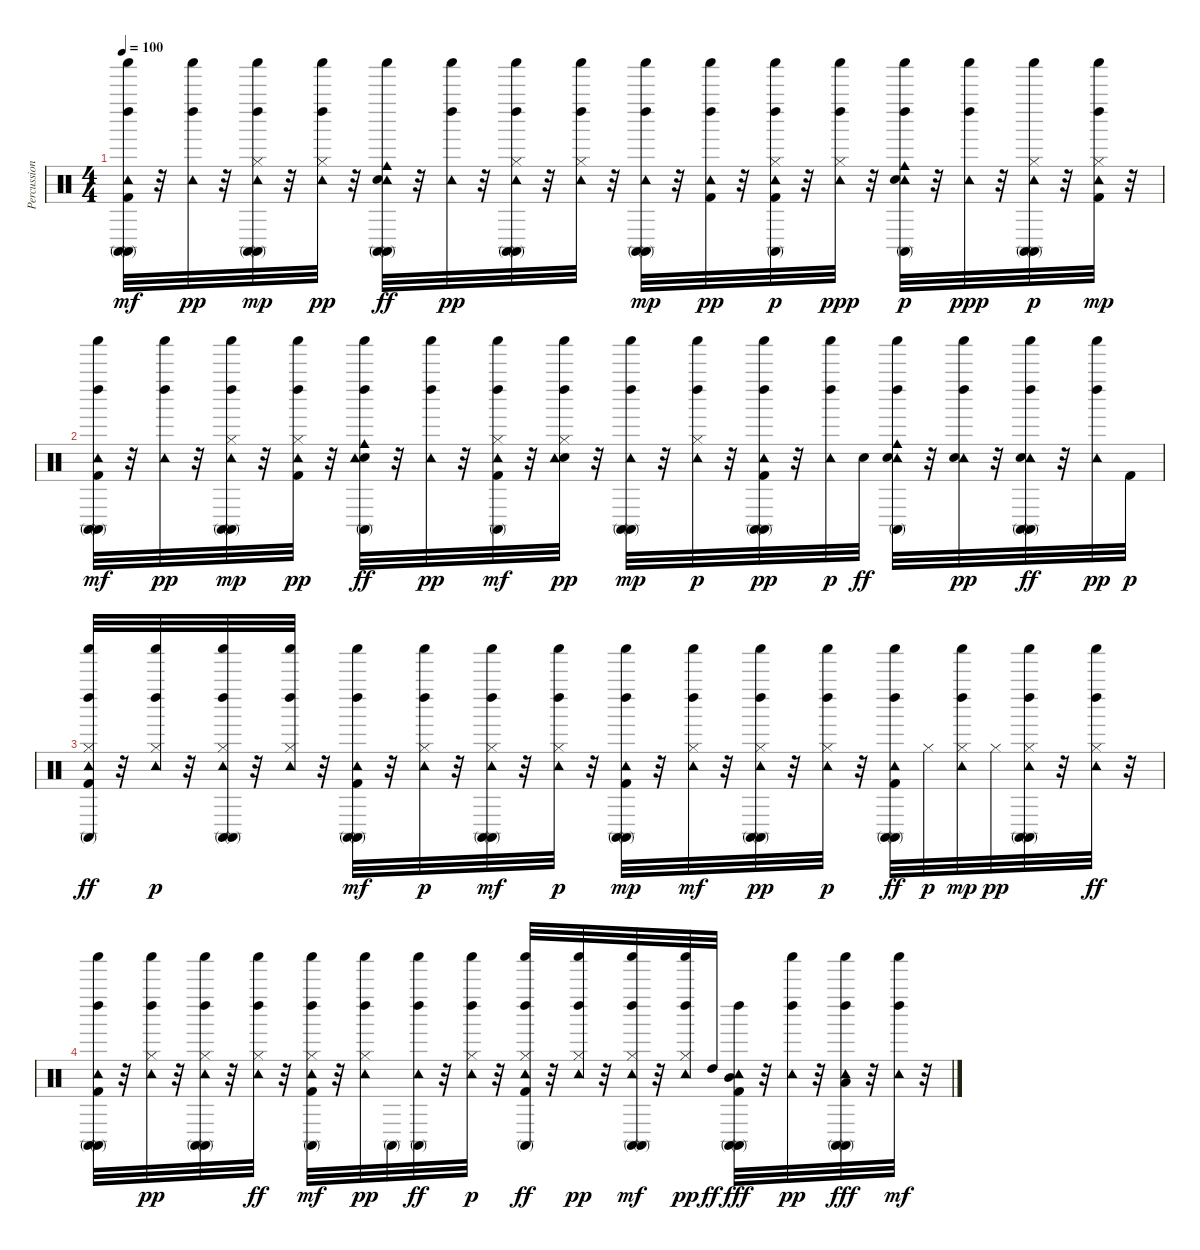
\track ("Percussions" "Percussion") {instrument percussion}
\staff {score}
\articulation defaults
\ts (4 4)
\tempo 100
\clef neutral
\ks c
("Conga high (mute)" "Tambourine (hit)" "Kick (hit) 2" "Conga high (mute)" "Left Maraca (hit)" "Shaker (hit)").32{dy mf} r.32 ("Tambourine (hit)" "Left Maraca (hit)" "Shaker (hit)").32{dy pp} r.32 ("Conga high (mute)" "Hi-Hat (closed)" "Tambourine (hit)" "Conga high (mute)" "Left Maraca (hit)" "Shaker (hit)").32{dy mp} r.32 ("Hi-Hat (closed)" "Tambourine (hit)" "Left Maraca (hit)" "Shaker (hit)").32{dy pp} r.32 ("Conga high (mute)" "Tambourine (hit)" "Conga high (mute)" "Cowbell medium (hit)" "Shaker (hit)" "Electric Snare (hit)").32{dy ff} r.32 ("Tambourine (hit)" "Left Maraca (hit)" "Shaker (hit)").32{dy pp} r.32 ("Conga high (mute)" "Tambourine (hit)" "Hi-Hat (closed)" "Shaker (hit)" "Conga high (mute)" "Left Maraca (hit)").32 r.32 ("Tambourine (hit)" "Hi-Hat (closed)" "Left Maraca (hit)" "Shaker (hit)").32 r.32 ("Conga high (mute)" "Conga high (mute)" "Tambourine (hit)" "Left Maraca (hit)" "Shaker (hit)").32{dy mp} r.32 ("Kick (hit) 2" "Tambourine (hit)" "Left Maraca (hit)" "Shaker (hit)").32{dy pp} r.32 ("Kick (hit) 2" "Hi-Hat (closed)" "Tambourine (hit)" "Left Maraca (hit)" "Shaker (hit)" "Conga high (mute)").32{dy p} r.32 ("Hi-Hat (closed)" "Left Maraca (hit)" "Tambourine (hit)" "Shaker (hit)").32{dy ppp} r.32 ("Tambourine (hit)" "Left Maraca (hit)" "Cowbell medium (hit)" "Electric Snare (hit)" "Shaker (hit)" "Conga high (mute)").32{dy p} r.32 ("Tambourine (hit)" "Left Maraca (hit)" "Shaker (hit)").32{dy ppp} r.32 ("Tambourine (hit)" "Conga high (mute)" "Hi-Hat (closed)" "Shaker (hit)" "Conga high (mute)").32{dy p} r.32 ("Left Maraca (hit)" "Hi-Hat (closed)" "Tambourine (hit)" "Shaker (hit)" "Kick (hit) 2").32{dy mp} r.32 |
("Conga high (mute)" "Left Maraca (hit)" "Conga high (mute)" "Shaker (hit)" "Tambourine (hit)" "Kick (hit) 2").32{dy mf} r.32 ("Left Maraca (hit)" "Shaker (hit)" "Tambourine (hit)").32{dy pp} r.32 ("Conga high (mute)" "Left Maraca (hit)" "Conga high (mute)" "Hi-Hat (closed)" "Shaker (hit)" "Tambourine (hit)").32{dy mp} r.32 ("Kick (hit) 2" "Hi-Hat (closed)" "Left Maraca (hit)" "Shaker (hit)" "Tambourine (hit)").32{dy pp} r.32 ("Electric Snare (hit)" "Left Maraca (hit)" "Shaker (hit)" "Conga high (mute)" "Tambourine (hit)" "Cowbell medium (hit)").32{dy ff} r.32 ("Left Maraca (hit)" "Shaker (hit)" "Tambourine (hit)").32{dy pp} r.32 ("Left Maraca (hit)" "Conga high (mute)" "Shaker (hit)" "Kick (hit) 2" "Tambourine (hit)" "Hi-Hat (closed)").32{dy mf} r.32 ("Electric Snare (hit)" "Left Maraca (hit)" "Hi-Hat (closed)" "Tambourine (hit)" "Shaker (hit)").32{dy pp} r.32 ("Left Maraca (hit)" "Shaker (hit)" "Tambourine (hit)" "Conga high (mute)" "Conga high (mute)").32{dy mp} r.32 ("Left Maraca (hit)" "Hi-Hat (closed)" "Tambourine (hit)" "Shaker (hit)").32{dy p} r.32 ("Kick (hit) 2" "Left Maraca (hit)" "Tambourine (hit)" "Shaker (hit)" "Conga high (mute)" "Conga high (mute)").32{dy pp} r.32 ("Tambourine (hit)" "Left Maraca (hit)" "Shaker (hit)").32{dy p} "Electric Snare (hit)".32{dy ff} ("Conga high (mute)" "Tambourine (hit)" "Left Maraca (hit)" "Electric Snare (hit)" "Cowbell medium (hit)" "Shaker (hit)").32 r.32 ("Tambourine (hit)" "Left Maraca (hit)" "Shaker (hit)" "Electric Snare (hit)").32{dy pp} r.32 ("Conga high (mute)" "Tambourine (hit)" "Left Maraca (hit)" "Conga high (mute)" "Shaker (hit)" "Electric Snare (hit)").32{dy ff} r.32 ("Tambourine (hit)" "Left Maraca (hit)" "Shaker (hit)").32{dy pp} "Kick (hit) 2".32{dy p} |
("Tambourine (hit)" "Conga high (mute)" "Left Maraca (hit)" "Hi-Hat (closed)" "Kick (hit) 2" "Shaker (hit)").32{dy ff} r.32 ("Tambourine (hit)" "Left Maraca (hit)" "Shaker (hit)" "Hi-Hat (closed)").32{dy p} r.32 ("Hi-Hat (closed)" "Tambourine (hit)" "Left Maraca (hit)" "Conga high (mute)" "Conga high (mute)" "Shaker (hit)").32 r.32 ("Tambourine (hit)" "Left Maraca (hit)" "Shaker (hit)" "Hi-Hat (closed)").32 r.32 ("Conga high (mute)" "Kick (hit) 2" "Tambourine (hit)" "Left Maraca (hit)" "Conga high (mute)" "Shaker (hit)").32{dy mf} r.32 ("Tambourine (hit)" "Shaker (hit)" "Left Maraca (hit)" "Hi-Hat (closed)").32{dy p} r.32 ("Conga high (mute)" "Tambourine (hit)" "Hi-Hat (closed)" "Left Maraca (hit)" "Conga high (mute)" "Shaker (hit)").32{dy mf} r.32 ("Tambourine (hit)" "Shaker (hit)" "Left Maraca (hit)" "Hi-Hat (closed)").32{dy p} r.32 ("Conga high (mute)" "Kick (hit) 2" "Tambourine (hit)" "Conga high (mute)" "Shaker (hit)" "Left Maraca (hit)").32{dy mp} r.32 ("Tambourine (hit)" "Shaker (hit)" "Hi-Hat (closed)" "Left Maraca (hit)").32{dy mf} r.32 ("Conga high (mute)" "Tambourine (hit)" "Conga high (mute)" "Left Maraca (hit)" "Shaker (hit)" "Hi-Hat (closed)").32{dy pp} r.32 ("Tambourine (hit)" "Hi-Hat (closed)" "Left Maraca (hit)" "Shaker (hit)").32{dy p} r.32 ("Conga high (mute)" "Kick (hit) 2" "Tambourine (hit)" "Conga high (mute)" "Left Maraca (hit)" "Shaker (hit)").32{dy ff} "Hi-Hat (closed)".32{dy p} ("Tambourine (hit)" "Left Maraca (hit)" "Shaker (hit)" "Hi-Hat (closed)").32{dy mp} "Hi-Hat (closed)".32{dy pp} ("Conga high (mute)" "Tambourine (hit)" "Conga high (mute)" "Shaker (hit)" "Left Maraca (hit)" "Hi-Hat (closed)").32 r.32 ("Tambourine (hit)" "Hi-Hat (closed)" "Shaker (hit)" "Left Maraca (hit)").32{dy ff} r.32 |
("Conga high (mute)" "Tambourine (hit)" "Conga high (mute)" "Shaker (hit)" "Kick (hit) 2" "Left Maraca (hit)").32 r.32 ("Tambourine (hit)" "Left Maraca (hit)" "Shaker (hit)" "Hi-Hat (closed)").32{dy pp} r.32 ("Conga high (mute)" "Conga high (mute)" "Tambourine (hit)" "Left Maraca (hit)" "Shaker (hit)" "Hi-Hat (closed)").32 r.32 ("Tambourine (hit)" "Hi-Hat (closed)" "Shaker (hit)" "Left Maraca (hit)").32{dy ff} r.32 ("Conga high (mute)" "Tambourine (hit)" "Left Maraca (hit)" "Shaker (hit)" "Kick (hit) 2" "Hi-Hat (closed)").32{dy mf} r.32 ("Hi-Hat (closed)" "Tambourine (hit)" "Left Maraca (hit)" "Shaker (hit)").32{dy pp} "Conga high (mute)".32 ("Conga high (mute)" "Tambourine (hit)" "Left Maraca (hit)" "Shaker (hit)").32{dy ff} r.32 ("Tambourine (hit)" "Left Maraca (hit)" "Hi-Hat (closed)" "Shaker (hit)").32{dy p} r.32 ("Conga high (mute)" "Hi-Hat (closed)" "Tambourine (hit)" "Kick (hit) 2" "Left Maraca (hit)" "Shaker (hit)").32{dy ff} r.32 ("Tambourine (hit)" "Left Maraca (hit)" "Hi-Hat (closed)" "Shaker (hit)").32{dy pp} r.32 ("Conga high (mute)" "Conga high (mute)" "Tambourine (hit)" "Left Maraca (hit)" "Shaker (hit)" "Hi-Hat (closed)").32{dy mf} r.32 ("Tambourine (hit)" "Hi-Hat (closed)" "Left Maraca (hit)" "Shaker (hit)").32{dy pp} "High Tom (hit)".32{dy ff} ("Conga high (mute)" "Kick (hit) 2" "Tambourine (hit)" "Conga high (mute)" "Left Maraca (hit)" "Mid Tom (hit)").32{dy fff} r.32 ("Tambourine (hit)" "Left Maraca (hit)" "Shaker (hit)").32{dy pp} r.32 ("Conga high (mute)" "Tambourine (hit)" "Conga high (mute)" "Left Maraca (hit)" "Shaker (hit)" "Low Tom (hit)").32{dy fff} r.32 ("Tambourine (hit)" "Shaker (hit)" "Left Maraca (hit)").32{dy mf} r.32
